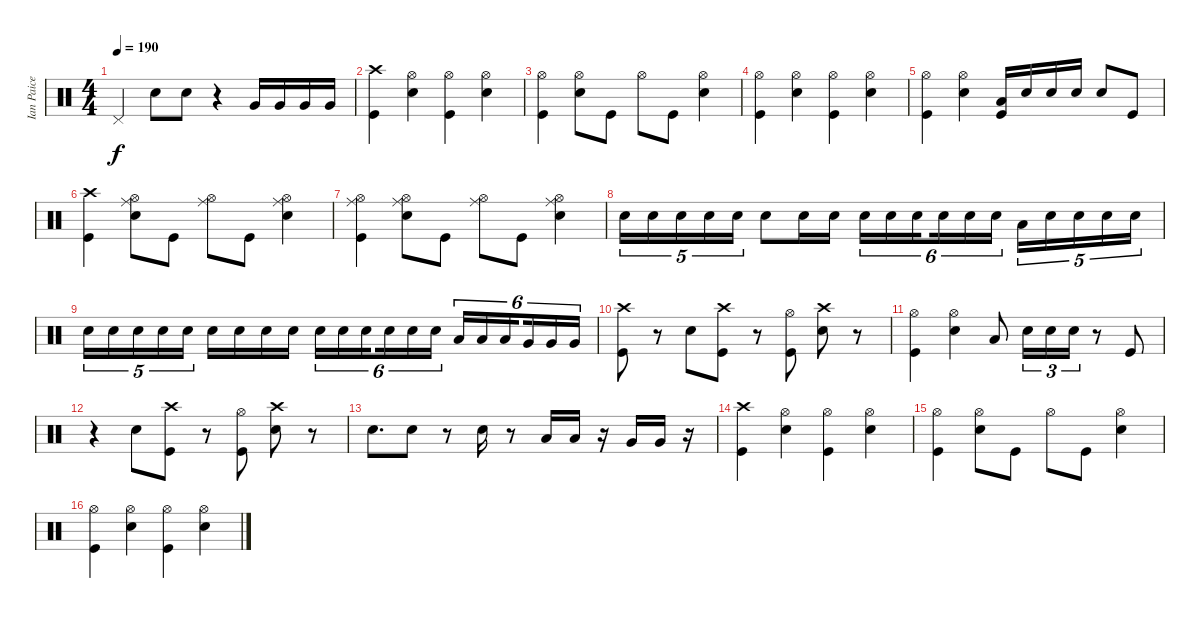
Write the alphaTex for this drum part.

\track ("Ian Paice" "Ian Paice") {instrument percussion}
\staff {score}
\articulation defaults
\ts (4 4)
\tempo 190
\clef neutral
\ks c "Pedal Hi-Hat (hit)".4{dy f} "Snare (hit) 2".8 "Snare (hit) 2".8
r.4 "Very Low Tom (hit)".16 "Very Low Tom (hit)".16 "Very Low Tom (hit)".16 "Very Low Tom (hit)".16 |
("Kick (hit)" "Crash high (hit)").4 ("Hi-Hat (open)" "Snare (hit) 2").4 ("Hi-Hat (open)" "Kick (hit)").4 ("Snare (hit) 2" "Hi-Hat (open)").4 |
("Hi-Hat (open)" "Kick (hit)").4 ("Hi-Hat (open)" "Snare (hit) 2").8 "Kick (hit)".8 "Hi-Hat (open)".8 "Kick (hit)".8 ("Hi-Hat (open)" "Snare (hit) 2").4 |
("Kick (hit)" "Hi-Hat (open)").4 ("Hi-Hat (open)" "Snare (hit) 2").4 ("Hi-Hat (open)" "Kick (hit)").4 ("Hi-Hat (open)" "Snare (hit) 2").4 |
("Hi-Hat (open)" "Kick (hit)").4 ("Snare (hit) 2" "Hi-Hat (open)").4 ("Low Tom (hit)" "Kick (hit)").16 "Snare (hit) 2".16 "Snare (hit) 2".16 "Snare (hit) 2".16 "Snare (hit) 2".8 "Kick (hit)".8 |
("Crash high (hit)" "Kick (hit)").4 ("Hi-Hat (open)" "Snare (hit) 2" "Ride (middle)").8 "Kick (hit)".8 ("Hi-Hat (open)" "Ride (middle)").8 "Kick (hit)".8 ("Hi-Hat (open)" "Snare (hit) 2" "Ride (middle)").4 |
("Hi-Hat (open)" "Ride (middle)" "Kick (hit)").4 ("Hi-Hat (open)" "Snare (hit) 2" "Ride (middle)").8 "Kick (hit)".8 ("Hi-Hat (open)" "Ride (middle)").8 "Kick (hit)".8 ("Hi-Hat (open)" "Snare (hit) 2" "Ride (middle)").4 |
"Snare (hit) 2".16{tu (5 4)} "Snare (hit) 2".16{tu (5 4)} "Snare (hit) 2".16{tu (5 4)} "Snare (hit) 2".16{tu (5 4)} "Snare (hit) 2".16{tu (5 4)} "Snare (hit) 2".8 "Snare (hit) 2".16 "Snare (hit) 2".16 "Snare (hit) 2".16{tu (6 4)} "Snare (hit) 2".16{tu (6 4)} "Snare (hit) 2".16{tu (6 4) beam splitsecondary} "Snare (hit) 2".16{tu (6 4)} "Snare (hit) 2".16{tu (6 4)} "Snare (hit) 2".16{tu (6 4)} "Low Tom (hit)".16{tu (5 4)} "Snare (hit) 2".16{tu (5 4)} "Snare (hit) 2".16{tu (5 4)} "Snare (hit) 2".16{tu (5 4)} "Snare (hit) 2".16{tu (5 4)} |
"Snare (hit) 2".16{tu (5 4)} "Snare (hit) 2".16{tu (5 4)} "Snare (hit) 2".16{tu (5 4)} "Snare (hit) 2".16{tu (5 4)} "Snare (hit) 2".16{tu (5 4)} "Snare (hit) 2".16 "Snare (hit) 2".16 "Snare (hit) 2".16 "Snare (hit) 2".16 "Snare (hit) 2".16{tu (6 4)} "Snare (hit) 2".16{tu (6 4)} "Snare (hit) 2".16{tu (6 4) beam splitsecondary} "Snare (hit) 2".16{tu (6 4)} "Snare (hit) 2".16{tu (6 4)} "Snare (hit) 2".16{tu (6 4)} "Low Tom (hit)".16{tu (6 4)} "Low Tom (hit)".16{tu (6 4)} "Low Tom (hit)".16{tu (6 4) beam splitsecondary} "Very Low Tom (hit)".16{tu (6 4)} "Very Low Tom (hit)".16{tu (6 4)} "Very Low Tom (hit)".16{tu (6 4)} |
("Kick (hit)" "Crash high (hit)").8 r.8 "Snare (hit) 2".8 ("Kick (hit)" "Crash high (hit)").8 r.8 ("Kick (hit)" "Hi-Hat (open)").8 ("Crash high (hit)" "Snare (hit) 2").8 r.8 |
("Hi-Hat (open)" "Kick (hit)").4 ("Snare (hit) 2" "Hi-Hat (open)").4 "Low Tom (hit)".8 "Snare (hit) 2".16{tu (3 2)} "Snare (hit) 2".16{tu (3 2)} "Snare (hit) 2".16{tu (3 2)} r.8 "Kick (hit)".8 |
r.4 "Snare (hit) 2".8 ("Kick (hit)" "Crash high (hit)").8 r.8 ("Hi-Hat (open)" "Kick (hit)").8 ("Snare (hit) 2" "Crash high (hit)").8 r.8 |
"Snare (hit) 2".8{d} "Snare (hit) 2".8 r.8 "Snare (hit) 2".16 r.8 "Low Tom (hit)".16 "Low Tom (hit)".16 r.16 "Very Low Tom (hit)".16 "Very Low Tom (hit)".16 r.16 |
("Crash high (hit)" "Kick (hit)").4 ("Snare (hit) 2" "Hi-Hat (open)").4 ("Hi-Hat (open)" "Kick (hit)").4 ("Snare (hit) 2" "Hi-Hat (open)").4 |
("Kick (hit)" "Hi-Hat (open)").4 ("Hi-Hat (open)" "Snare (hit) 2").8 "Kick (hit)".8 "Hi-Hat (open)".8 "Kick (hit)".8 ("Hi-Hat (open)" "Snare (hit) 2").4 |
("Hi-Hat (open)" "Kick (hit)").4 ("Snare (hit) 2" "Hi-Hat (open)").4 ("Kick (hit)" "Hi-Hat (open)").4 ("Hi-Hat (open)" "Snare (hit) 2").4
